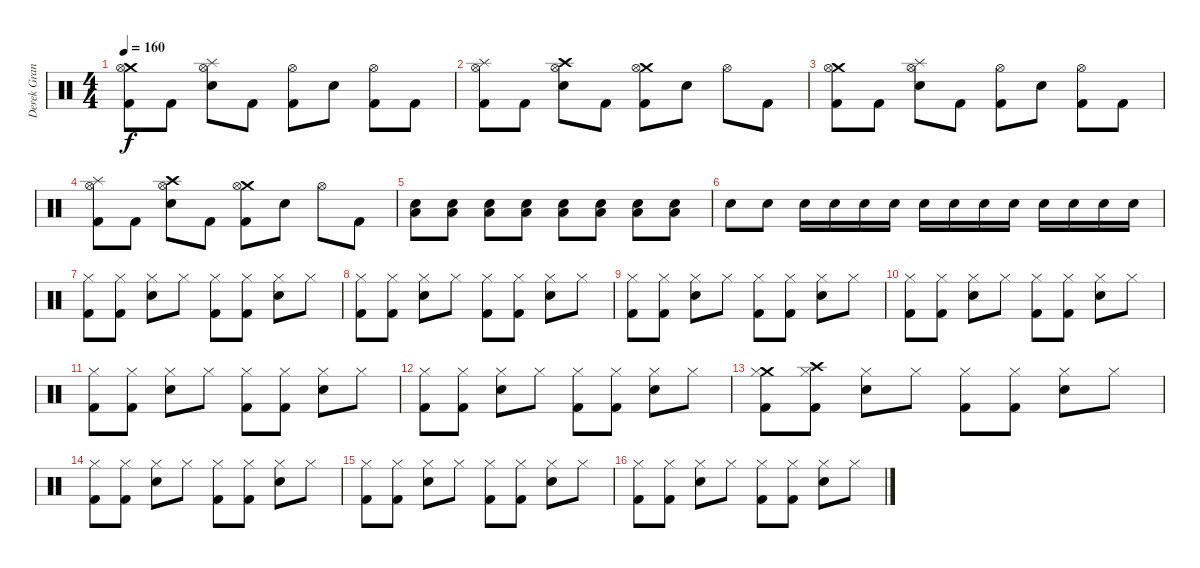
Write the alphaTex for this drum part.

\track ("Derek Grant" "Derek Gran") {instrument percussion}
\staff {score}
\articulation defaults
\ts (4 4)
\tempo 160
\clef neutral
\ks c
("Crash medium (hit)" "Hi-Hat (open)" "Kick (hit) 2").8{dy f} "Kick (hit) 2".8 ("Splash (hit)" "Hi-Hat (open)" "Snare (hit) 2").8 "Kick (hit) 2".8 ("Hi-Hat (open)" "Kick (hit) 2").8 "Snare (hit) 2".8 ("Hi-Hat (open)" "Kick (hit) 2").8 "Kick (hit) 2".8 |
("Splash (hit)" "Hi-Hat (open)" "Kick (hit) 2").8 "Kick (hit) 2".8 ("Crash high (hit)" "Hi-Hat (open)" "Snare (hit) 2").8 "Kick (hit) 2".8 ("Crash medium (hit)" "Hi-Hat (open)" "Kick (hit) 2").8 "Snare (hit) 2".8 "Hi-Hat (open)".8 "Kick (hit) 2".8 |
("Crash medium (hit)" "Hi-Hat (open)" "Kick (hit) 2").8 "Kick (hit) 2".8 ("Splash (hit)" "Hi-Hat (open)" "Snare (hit) 2").8 "Kick (hit) 2".8 ("Hi-Hat (open)" "Kick (hit) 2").8 "Snare (hit) 2".8 ("Hi-Hat (open)" "Kick (hit) 2").8 "Kick (hit) 2".8 |
("Splash (hit)" "Hi-Hat (open)" "Kick (hit) 2").8 "Kick (hit) 2".8 ("Crash high (hit)" "Hi-Hat (open)" "Snare (hit) 2").8 "Kick (hit) 2".8 ("Crash medium (hit)" "Hi-Hat (open)" "Kick (hit) 2").8 "Snare (hit) 2".8 "Hi-Hat (open)".8 "Kick (hit) 2".8 |
("Snare (hit) 2" "Low Floor Tom (hit)").8 ("Snare (hit) 2" "Low Floor Tom (hit)").8 ("Snare (hit) 2" "Low Floor Tom (hit)").8 ("Snare (hit) 2" "Low Floor Tom (hit)").8 ("Snare (hit) 2" "Low Floor Tom (hit)").8 ("Snare (hit) 2" "Low Floor Tom (hit)").8 ("Snare (hit) 2" "Low Floor Tom (hit)").8 ("Snare (hit) 2" "Low Floor Tom (hit)").8 |
"Snare (hit) 2".8 "Snare (hit) 2".8 "Snare (hit) 2".16 "Snare (hit) 2".16 "Snare (hit) 2".16 "Snare (hit) 2".16 "Snare (hit) 2".16 "Snare (hit) 2".16 "Snare (hit) 2".16 "Snare (hit) 2".16 "Snare (hit) 2".16 "Snare (hit) 2".16 "Snare (hit) 2".16 "Snare (hit) 2".16 |
("Hi-Hat (closed)" "Kick (hit) 2").8 ("Hi-Hat (closed)" "Kick (hit) 2").8 ("Hi-Hat (closed)" "Snare (hit) 2").8 "Hi-Hat (closed)".8 ("Hi-Hat (closed)" "Kick (hit) 2").8 ("Hi-Hat (closed)" "Kick (hit) 2").8 ("Hi-Hat (closed)" "Snare (hit) 2").8 "Hi-Hat (closed)".8 |
("Hi-Hat (closed)" "Kick (hit) 2").8 ("Hi-Hat (closed)" "Kick (hit) 2").8 ("Hi-Hat (closed)" "Snare (hit) 2").8 "Hi-Hat (closed)".8 ("Hi-Hat (closed)" "Kick (hit) 2").8 ("Hi-Hat (closed)" "Kick (hit) 2").8 ("Hi-Hat (closed)" "Snare (hit) 2").8 "Hi-Hat (closed)".8 |
("Hi-Hat (closed)" "Kick (hit) 2").8 ("Hi-Hat (closed)" "Kick (hit) 2").8 ("Hi-Hat (closed)" "Snare (hit) 2").8 "Hi-Hat (closed)".8 ("Hi-Hat (closed)" "Kick (hit) 2").8 ("Hi-Hat (closed)" "Kick (hit) 2").8 ("Hi-Hat (closed)" "Snare (hit) 2").8 "Hi-Hat (closed)".8 |
("Hi-Hat (closed)" "Kick (hit) 2").8 ("Hi-Hat (closed)" "Kick (hit) 2").8 ("Hi-Hat (closed)" "Snare (hit) 2").8 "Hi-Hat (closed)".8 ("Hi-Hat (closed)" "Kick (hit) 2").8 ("Hi-Hat (closed)" "Kick (hit) 2").8 ("Hi-Hat (closed)" "Snare (hit) 2").8 "Hi-Hat (closed)".8 |
("Hi-Hat (closed)" "Kick (hit) 2").8 ("Hi-Hat (closed)" "Kick (hit) 2").8 ("Hi-Hat (closed)" "Snare (hit) 2").8 "Hi-Hat (closed)".8 ("Hi-Hat (closed)" "Kick (hit) 2").8 ("Hi-Hat (closed)" "Kick (hit) 2").8 ("Hi-Hat (closed)" "Snare (hit) 2").8 "Hi-Hat (closed)".8 |
("Hi-Hat (closed)" "Kick (hit) 2").8 ("Hi-Hat (closed)" "Kick (hit) 2").8 ("Hi-Hat (closed)" "Snare (hit) 2").8 "Hi-Hat (closed)".8 ("Hi-Hat (closed)" "Kick (hit) 2").8 ("Hi-Hat (closed)" "Kick (hit) 2").8 ("Hi-Hat (closed)" "Snare (hit) 2").8 "Hi-Hat (closed)".8 |
("Crash medium (hit)" "Hi-Hat (closed)" "Kick (hit) 2").8 ("Crash high (hit)" "Hi-Hat (closed)" "Kick (hit) 2").8 ("Hi-Hat (closed)" "Snare (hit) 2").8 "Hi-Hat (closed)".8 ("Hi-Hat (closed)" "Kick (hit) 2").8 ("Hi-Hat (closed)" "Kick (hit) 2").8 ("Hi-Hat (closed)" "Snare (hit) 2").8 "Hi-Hat (closed)".8 |
("Hi-Hat (closed)" "Kick (hit) 2").8 ("Hi-Hat (closed)" "Kick (hit) 2").8 ("Hi-Hat (closed)" "Snare (hit) 2").8 "Hi-Hat (closed)".8 ("Hi-Hat (closed)" "Kick (hit) 2").8 ("Hi-Hat (closed)" "Kick (hit) 2").8 ("Hi-Hat (closed)" "Snare (hit) 2").8 "Hi-Hat (closed)".8 |
("Hi-Hat (closed)" "Kick (hit) 2").8 ("Hi-Hat (closed)" "Kick (hit) 2").8 ("Hi-Hat (closed)" "Snare (hit) 2").8 "Hi-Hat (closed)".8 ("Hi-Hat (closed)" "Kick (hit) 2").8 ("Hi-Hat (closed)" "Kick (hit) 2").8 ("Hi-Hat (closed)" "Snare (hit) 2").8 "Hi-Hat (closed)".8 |
("Hi-Hat (closed)" "Kick (hit) 2").8 ("Hi-Hat (closed)" "Kick (hit) 2").8 ("Hi-Hat (closed)" "Snare (hit) 2").8 "Hi-Hat (closed)".8 ("Hi-Hat (closed)" "Kick (hit) 2").8 ("Hi-Hat (closed)" "Kick (hit) 2").8 ("Hi-Hat (closed)" "Snare (hit) 2").8 "Hi-Hat (closed)".8
